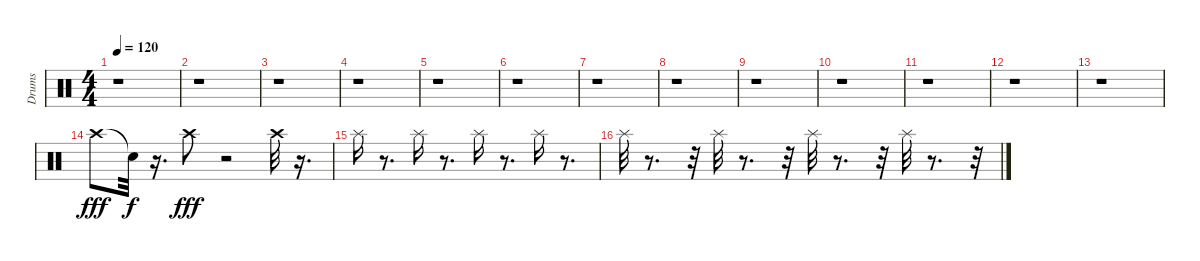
\track ("Drums" "Drums") {instrument percussion}
\staff {score}
\articulation defaults
\ts (4 4)
\tempo 120
\clef neutral
\ks c
r.1{dy fff} |
r.1 |
r.1 |
r.1 |
r.1 |
r.1 |
r.1 |
r.1 |
r.1 |
r.1 |
r.1 |
r.1 |
r.1 |
"Crash high (hit)".8 "Snare (hit)"{t}.32{dy f} r.16{d} "Crash high (hit)".8{dy fff} r.2 "Crash high (hit)".32 r.16{d} |
"Splash (hit)".16 r.8{d} "Splash (hit)".16 r.8{d} "Splash (hit)".16 r.8{d} "Splash (hit)".16 r.8{d} |
"Splash (hit)".32 r.8{d} r.32 "Splash (hit)".32 r.8{d} r.32 "Splash (hit)".32 r.8{d} r.32 "Splash (hit)".32 r.8{d} r.32
